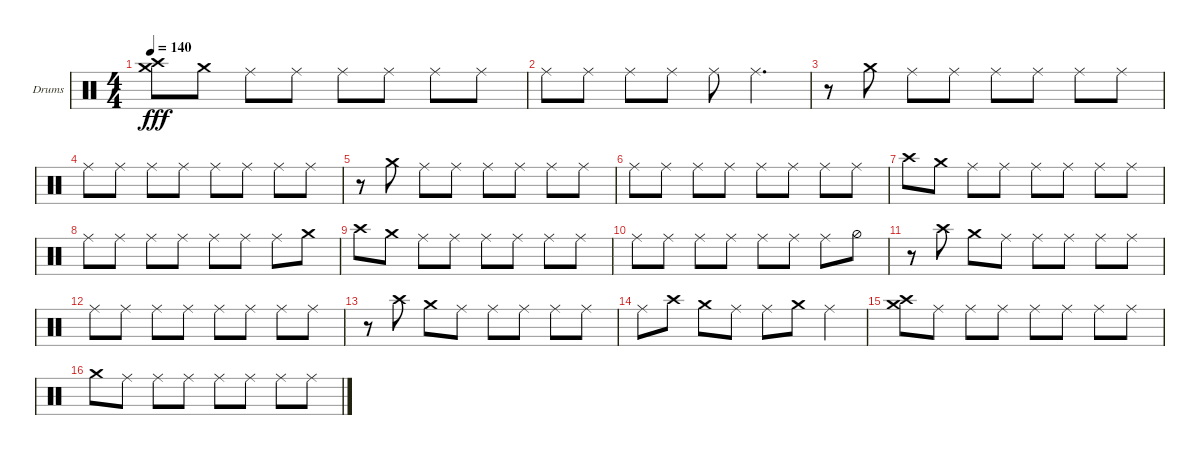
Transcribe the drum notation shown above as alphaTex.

\defaultSystemsLayout 4
\bracketExtendMode groupsimilarinstruments
\firstSystemTrackNameOrientation horizontal
\otherSystemsTrackNameOrientation horizontal
\track ("Helders" "Drums") {instrument percussion}
\staff {score}
\articulation defaults
\ts (4 4)
\tempo 140
\clef neutral
\ks c
("Crash high (hit)" "Crash medium (hit)").8{dy fff} "Crash medium (hit)".8 "Ride (middle)".8 "Ride (middle)".8 "Ride (middle)".8 "Ride (middle)".8 "Ride (middle)".8 "Ride (middle)".8 |
"Ride (middle)".8 "Ride (middle)".8 "Ride (middle)".8 "Ride (middle)".8 "Ride (middle)".8 "Ride (middle)".4{d} |
r.8 "Crash medium (hit)".8 "Ride (middle)".8 "Ride (middle)".8 "Ride (middle)".8 "Ride (middle)".8 "Ride (middle)".8 "Ride (middle)".8 |
"Ride (middle)".8 "Ride (middle)".8 "Ride (middle)".8 "Ride (middle)".8 "Ride (middle)".8 "Ride (middle)".8 "Ride (middle)".8 "Ride (middle)".8 |
r.8 "Crash medium (hit)".8 "Ride (middle)".8 "Ride (middle)".8 "Ride (middle)".8 "Ride (middle)".8 "Ride (middle)".8 "Ride (middle)".8 |
"Ride (middle)".8 "Ride (middle)".8 "Ride (middle)".8 "Ride (middle)".8 "Ride (middle)".8 "Ride (middle)".8 "Ride (middle)".8 "Ride (middle)".8 |
"Crash high (hit)".8 "Crash medium (hit)".8 "Ride (middle)".8 "Ride (middle)".8 "Ride (middle)".8 "Ride (middle)".8 "Ride (middle)".8 "Ride (middle)".8 |
"Ride (middle)".8 "Ride (middle)".8 "Ride (middle)".8 "Ride (middle)".8 "Ride (middle)".8 "Ride (middle)".8 "Ride (middle)".8 "Crash medium (hit)".8 |
"Crash high (hit)".8 "Crash medium (hit)".8 "Ride (middle)".8 "Ride (middle)".8 "Ride (middle)".8 "Ride (middle)".8 "Ride (middle)".8 "Ride (middle)".8 |
"Ride (middle)".8 "Ride (middle)".8 "Ride (middle)".8 "Ride (middle)".8 "Ride (middle)".8 "Ride (middle)".8 "Ride (middle)".8 "Hi-Hat (half)".8 |
r.8 "Crash high (hit)".8 "Crash medium (hit)".8 "Ride (middle)".8 "Ride (middle)".8 "Ride (middle)".8 "Ride (middle)".8 "Ride (middle)".8 |
"Ride (middle)".8 "Ride (middle)".8 "Ride (middle)".8 "Ride (middle)".8 "Ride (middle)".8 "Ride (middle)".8 "Ride (middle)".8 "Ride (middle)".8 |
r.8 "Crash high (hit)".8 "Crash medium (hit)".8 "Ride (middle)".8 "Ride (middle)".8 "Ride (middle)".8 "Ride (middle)".8 "Ride (middle)".8 |
"Ride (middle)".8 "Crash high (hit)".8 "Crash medium (hit)".8 "Ride (middle)".8 "Ride (middle)".8 "Crash medium (hit)".8 "Ride (middle)".4 |
("Crash high (hit)" "Crash medium (hit)").8 "Ride (middle)".8 "Ride (middle)".8 "Ride (middle)".8 "Ride (middle)".8 "Ride (middle)".8 "Ride (middle)".8 "Ride (middle)".8 |
"Crash medium (hit)".8 "Ride (middle)".8 "Ride (middle)".8 "Ride (middle)".8 "Ride (middle)".8 "Ride (middle)".8 "Ride (middle)".8 "Ride (middle)".8
